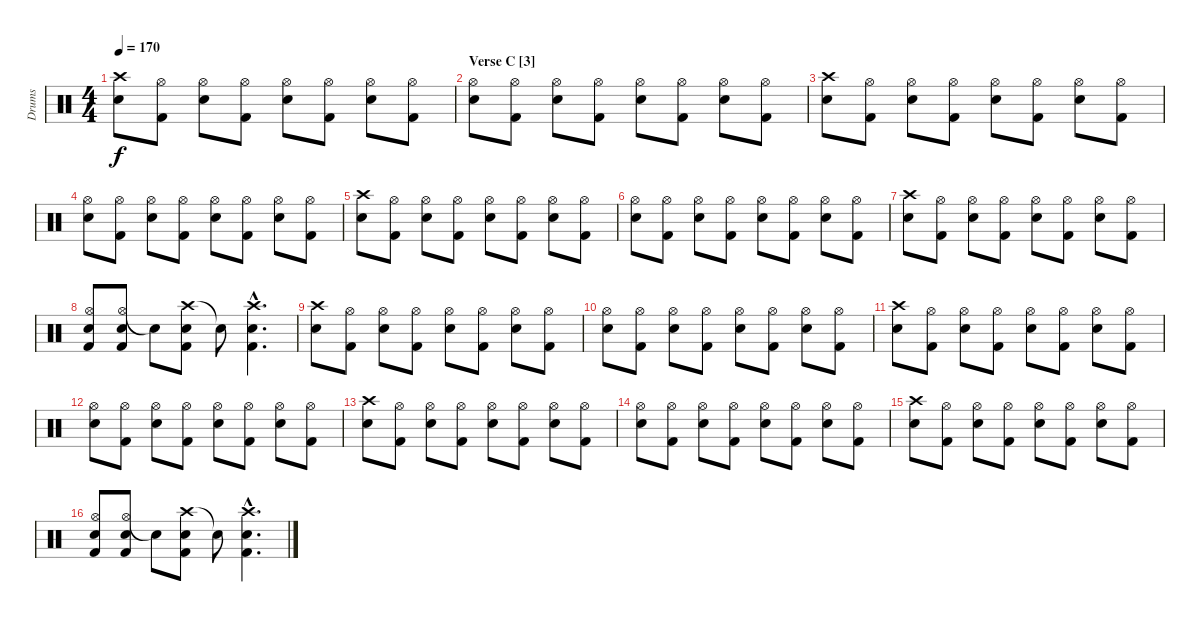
\track ("Drums" "Drums") {instrument percussion}
\staff {score}
\articulation defaults
\ts (4 4)
\tempo 170
\clef neutral
\ks c
("Crash high (hit)" "Electric Snare (hit)").8{dy f} ("Hi-Hat (open)" "Kick (hit) 2").8 ("Hi-Hat (open)" "Electric Snare (hit)").8 ("Hi-Hat (open)" "Kick (hit) 2").8 ("Hi-Hat (open)" "Electric Snare (hit)").8 ("Hi-Hat (open)" "Kick (hit) 2").8 ("Hi-Hat (open)" "Electric Snare (hit)").8 ("Hi-Hat (open)" "Kick (hit) 2").8 |
\section ("" "Verse C [3]")
("Hi-Hat (open)" "Electric Snare (hit)").8 ("Hi-Hat (open)" "Kick (hit) 2").8 ("Hi-Hat (open)" "Electric Snare (hit)").8 ("Hi-Hat (open)" "Kick (hit) 2").8 ("Hi-Hat (open)" "Electric Snare (hit)").8 ("Hi-Hat (open)" "Kick (hit) 2").8 ("Hi-Hat (open)" "Electric Snare (hit)").8 ("Hi-Hat (open)" "Kick (hit) 2").8 |
("Crash high (hit)" "Electric Snare (hit)").8 ("Hi-Hat (open)" "Kick (hit) 2").8 ("Hi-Hat (open)" "Electric Snare (hit)").8 ("Hi-Hat (open)" "Kick (hit) 2").8 ("Hi-Hat (open)" "Electric Snare (hit)").8 ("Hi-Hat (open)" "Kick (hit) 2").8 ("Hi-Hat (open)" "Electric Snare (hit)").8 ("Hi-Hat (open)" "Kick (hit) 2").8 |
("Hi-Hat (open)" "Electric Snare (hit)").8 ("Hi-Hat (open)" "Kick (hit) 2").8 ("Hi-Hat (open)" "Electric Snare (hit)").8 ("Hi-Hat (open)" "Kick (hit) 2").8 ("Hi-Hat (open)" "Electric Snare (hit)").8 ("Hi-Hat (open)" "Kick (hit) 2").8 ("Hi-Hat (open)" "Electric Snare (hit)").8 ("Hi-Hat (open)" "Kick (hit) 2").8 |
("Crash high (hit)" "Electric Snare (hit)").8 ("Hi-Hat (open)" "Kick (hit) 2").8 ("Hi-Hat (open)" "Electric Snare (hit)").8 ("Hi-Hat (open)" "Kick (hit) 2").8 ("Hi-Hat (open)" "Electric Snare (hit)").8 ("Hi-Hat (open)" "Kick (hit) 2").8 ("Hi-Hat (open)" "Electric Snare (hit)").8 ("Hi-Hat (open)" "Kick (hit) 2").8 |
("Hi-Hat (open)" "Electric Snare (hit)").8 ("Hi-Hat (open)" "Kick (hit) 2").8 ("Hi-Hat (open)" "Electric Snare (hit)").8 ("Hi-Hat (open)" "Kick (hit) 2").8 ("Hi-Hat (open)" "Electric Snare (hit)").8 ("Hi-Hat (open)" "Kick (hit) 2").8 ("Hi-Hat (open)" "Electric Snare (hit)").8 ("Hi-Hat (open)" "Kick (hit) 2").8 |
("Crash high (hit)" "Electric Snare (hit)").8 ("Hi-Hat (open)" "Kick (hit) 2").8 ("Hi-Hat (open)" "Electric Snare (hit)").8 ("Hi-Hat (open)" "Kick (hit) 2").8 ("Hi-Hat (open)" "Electric Snare (hit)").8 ("Hi-Hat (open)" "Kick (hit) 2").8 ("Hi-Hat (open)" "Electric Snare (hit)").8 ("Hi-Hat (open)" "Kick (hit) 2").8 |
("Hi-Hat (open)" "Electric Snare (hit)" "Kick (hit) 2").8 ("Hi-Hat (open)" "Electric Snare (hit)" "Kick (hit) 2").8 "Snare (hit)"{t}.8 ("Crash high (hit)" "Electric Snare (hit)" "Kick (hit) 2").8 "Snare (hit)"{t}.8 ("Crash high (hit)"{hac} "Electric Snare (hit)"{hac} "Kick (hit) 2"{hac}).4{d} |
("Crash high (hit)" "Electric Snare (hit)").8 ("Hi-Hat (open)" "Kick (hit) 2").8 ("Hi-Hat (open)" "Electric Snare (hit)").8 ("Hi-Hat (open)" "Kick (hit) 2").8 ("Hi-Hat (open)" "Electric Snare (hit)").8 ("Hi-Hat (open)" "Kick (hit) 2").8 ("Hi-Hat (open)" "Electric Snare (hit)").8 ("Hi-Hat (open)" "Kick (hit) 2").8 |
("Hi-Hat (open)" "Electric Snare (hit)").8 ("Hi-Hat (open)" "Kick (hit) 2").8 ("Hi-Hat (open)" "Electric Snare (hit)").8 ("Hi-Hat (open)" "Kick (hit) 2").8 ("Hi-Hat (open)" "Electric Snare (hit)").8 ("Hi-Hat (open)" "Kick (hit) 2").8 ("Hi-Hat (open)" "Electric Snare (hit)").8 ("Hi-Hat (open)" "Kick (hit) 2").8 |
("Crash high (hit)" "Electric Snare (hit)").8 ("Hi-Hat (open)" "Kick (hit) 2").8 ("Hi-Hat (open)" "Electric Snare (hit)").8 ("Hi-Hat (open)" "Kick (hit) 2").8 ("Hi-Hat (open)" "Electric Snare (hit)").8 ("Hi-Hat (open)" "Kick (hit) 2").8 ("Hi-Hat (open)" "Electric Snare (hit)").8 ("Hi-Hat (open)" "Kick (hit) 2").8 |
("Hi-Hat (open)" "Electric Snare (hit)").8 ("Hi-Hat (open)" "Kick (hit) 2").8 ("Hi-Hat (open)" "Electric Snare (hit)").8 ("Hi-Hat (open)" "Kick (hit) 2").8 ("Hi-Hat (open)" "Electric Snare (hit)").8 ("Hi-Hat (open)" "Kick (hit) 2").8 ("Hi-Hat (open)" "Electric Snare (hit)").8 ("Hi-Hat (open)" "Kick (hit) 2").8 |
("Crash high (hit)" "Electric Snare (hit)").8 ("Hi-Hat (open)" "Kick (hit) 2").8 ("Hi-Hat (open)" "Electric Snare (hit)").8 ("Hi-Hat (open)" "Kick (hit) 2").8 ("Hi-Hat (open)" "Electric Snare (hit)").8 ("Hi-Hat (open)" "Kick (hit) 2").8 ("Hi-Hat (open)" "Electric Snare (hit)").8 ("Hi-Hat (open)" "Kick (hit) 2").8 |
("Hi-Hat (open)" "Electric Snare (hit)").8 ("Hi-Hat (open)" "Kick (hit) 2").8 ("Hi-Hat (open)" "Electric Snare (hit)").8 ("Hi-Hat (open)" "Kick (hit) 2").8 ("Hi-Hat (open)" "Electric Snare (hit)").8 ("Hi-Hat (open)" "Kick (hit) 2").8 ("Hi-Hat (open)" "Electric Snare (hit)").8 ("Hi-Hat (open)" "Kick (hit) 2").8 |
("Crash high (hit)" "Electric Snare (hit)").8 ("Hi-Hat (open)" "Kick (hit) 2").8 ("Hi-Hat (open)" "Electric Snare (hit)").8 ("Hi-Hat (open)" "Kick (hit) 2").8 ("Hi-Hat (open)" "Electric Snare (hit)").8 ("Hi-Hat (open)" "Kick (hit) 2").8 ("Hi-Hat (open)" "Electric Snare (hit)").8 ("Hi-Hat (open)" "Kick (hit) 2").8 |
("Hi-Hat (open)" "Electric Snare (hit)" "Kick (hit) 2").8 ("Hi-Hat (open)" "Electric Snare (hit)" "Kick (hit) 2").8 "Snare (hit)"{t}.8 ("Crash high (hit)" "Electric Snare (hit)" "Kick (hit) 2").8 "Snare (hit)"{t}.8 ("Crash high (hit)"{hac} "Electric Snare (hit)"{hac} "Kick (hit) 2"{hac}).4{d}
